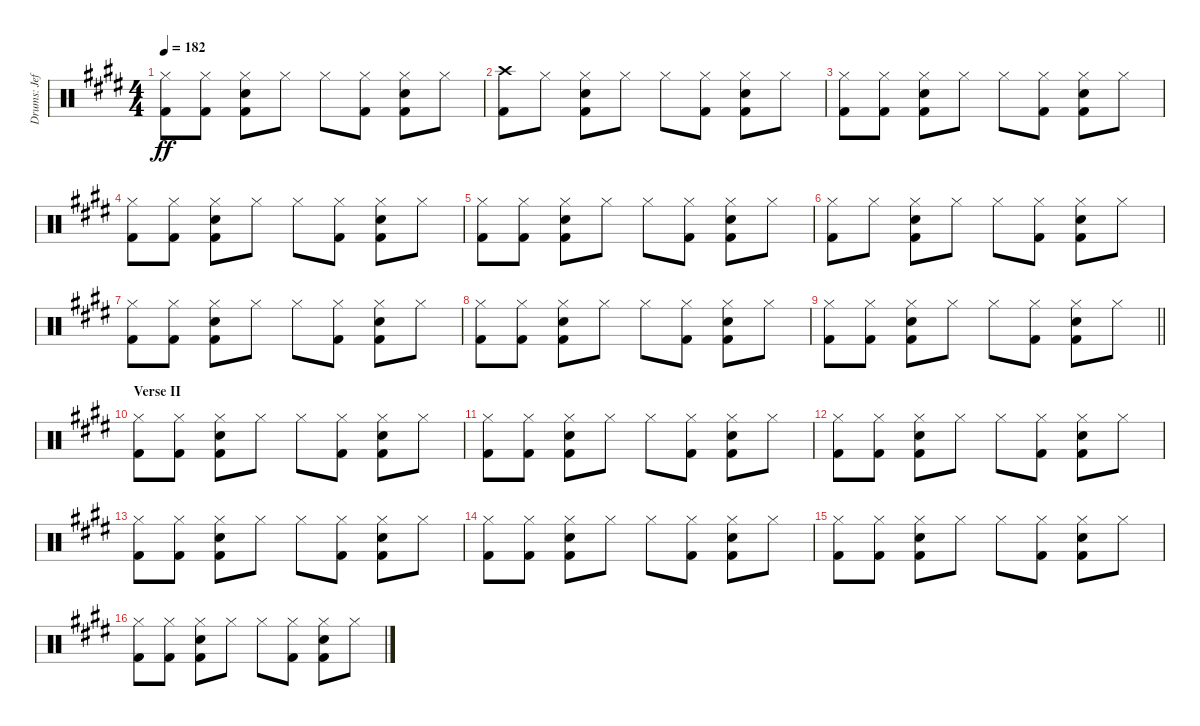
\track ("Drums: Jeff" "Drums: Jef") {instrument percussion}
\staff {score}
\articulation defaults
\ts (4 4)
\tempo 182
\clef neutral
\ks e
("Hi-Hat (closed)" "Kick (hit) 2").8{dy ff} ("Hi-Hat (closed)" "Kick (hit) 2").8 ("Hi-Hat (closed)" "Electric Snare (hit)" "Kick (hit) 2").8 "Hi-Hat (closed)".8 "Hi-Hat (closed)".8 ("Hi-Hat (closed)" "Kick (hit) 2").8 ("Hi-Hat (closed)" "Electric Snare (hit)" "Kick (hit) 2").8 "Hi-Hat (closed)".8 |
("Crash high (hit)" "Kick (hit) 2").8 "Hi-Hat (closed)".8 ("Hi-Hat (closed)" "Electric Snare (hit)" "Kick (hit) 2").8 "Hi-Hat (closed)".8 "Hi-Hat (closed)".8 ("Hi-Hat (closed)" "Kick (hit) 2").8 ("Hi-Hat (closed)" "Electric Snare (hit)" "Kick (hit) 2").8 "Hi-Hat (closed)".8 |
("Hi-Hat (closed)" "Kick (hit) 2").8 ("Hi-Hat (closed)" "Kick (hit) 2").8 ("Hi-Hat (closed)" "Electric Snare (hit)" "Kick (hit) 2").8 "Hi-Hat (closed)".8 "Hi-Hat (closed)".8 ("Hi-Hat (closed)" "Kick (hit) 2").8 ("Hi-Hat (closed)" "Electric Snare (hit)" "Kick (hit) 2").8 "Hi-Hat (closed)".8 |
("Hi-Hat (closed)" "Kick (hit) 2").8 ("Hi-Hat (closed)" "Kick (hit) 2").8 ("Hi-Hat (closed)" "Electric Snare (hit)" "Kick (hit) 2").8 "Hi-Hat (closed)".8 "Hi-Hat (closed)".8 ("Hi-Hat (closed)" "Kick (hit) 2").8 ("Hi-Hat (closed)" "Electric Snare (hit)" "Kick (hit) 2").8 "Hi-Hat (closed)".8 |
("Hi-Hat (closed)" "Kick (hit) 2").8 ("Hi-Hat (closed)" "Kick (hit) 2").8 ("Hi-Hat (closed)" "Electric Snare (hit)" "Kick (hit) 2").8 "Hi-Hat (closed)".8 "Hi-Hat (closed)".8 ("Hi-Hat (closed)" "Kick (hit) 2").8 ("Hi-Hat (closed)" "Electric Snare (hit)" "Kick (hit) 2").8 "Hi-Hat (closed)".8 |
("Hi-Hat (closed)" "Kick (hit) 2").8 "Hi-Hat (closed)".8 ("Hi-Hat (closed)" "Electric Snare (hit)" "Kick (hit) 2").8 "Hi-Hat (closed)".8 "Hi-Hat (closed)".8 ("Hi-Hat (closed)" "Kick (hit) 2").8 ("Hi-Hat (closed)" "Electric Snare (hit)" "Kick (hit) 2").8 "Hi-Hat (closed)".8 |
("Hi-Hat (closed)" "Kick (hit) 2").8 ("Hi-Hat (closed)" "Kick (hit) 2").8 ("Hi-Hat (closed)" "Electric Snare (hit)" "Kick (hit) 2").8 "Hi-Hat (closed)".8 "Hi-Hat (closed)".8 ("Hi-Hat (closed)" "Kick (hit) 2").8 ("Hi-Hat (closed)" "Electric Snare (hit)" "Kick (hit) 2").8 "Hi-Hat (closed)".8 |
("Hi-Hat (closed)" "Kick (hit) 2").8 ("Hi-Hat (closed)" "Kick (hit) 2").8 ("Hi-Hat (closed)" "Electric Snare (hit)" "Kick (hit) 2").8 "Hi-Hat (closed)".8 "Hi-Hat (closed)".8 ("Hi-Hat (closed)" "Kick (hit) 2").8 ("Hi-Hat (closed)" "Electric Snare (hit)" "Kick (hit) 2").8 "Hi-Hat (closed)".8 |
\barLineRight lightlight
("Hi-Hat (closed)" "Kick (hit) 2").8 ("Hi-Hat (closed)" "Kick (hit) 2").8 ("Hi-Hat (closed)" "Electric Snare (hit)" "Kick (hit) 2").8 "Hi-Hat (closed)".8 "Hi-Hat (closed)".8 ("Hi-Hat (closed)" "Kick (hit) 2").8 ("Hi-Hat (closed)" "Electric Snare (hit)" "Kick (hit) 2").8 "Hi-Hat (closed)".8 |
\section ("" "Verse II")
("Hi-Hat (closed)" "Kick (hit) 2").8 ("Hi-Hat (closed)" "Kick (hit) 2").8 ("Hi-Hat (closed)" "Electric Snare (hit)" "Kick (hit) 2").8 "Hi-Hat (closed)".8 "Hi-Hat (closed)".8 ("Hi-Hat (closed)" "Kick (hit) 2").8 ("Hi-Hat (closed)" "Electric Snare (hit)" "Kick (hit) 2").8 "Hi-Hat (closed)".8 |
("Hi-Hat (closed)" "Kick (hit) 2").8 ("Hi-Hat (closed)" "Kick (hit) 2").8 ("Hi-Hat (closed)" "Electric Snare (hit)" "Kick (hit) 2").8 "Hi-Hat (closed)".8 "Hi-Hat (closed)".8 ("Hi-Hat (closed)" "Kick (hit) 2").8 ("Hi-Hat (closed)" "Electric Snare (hit)" "Kick (hit) 2").8 "Hi-Hat (closed)".8 |
("Hi-Hat (closed)" "Kick (hit) 2").8 ("Hi-Hat (closed)" "Kick (hit) 2").8 ("Hi-Hat (closed)" "Electric Snare (hit)" "Kick (hit) 2").8 "Hi-Hat (closed)".8 "Hi-Hat (closed)".8 ("Hi-Hat (closed)" "Kick (hit) 2").8 ("Hi-Hat (closed)" "Electric Snare (hit)" "Kick (hit) 2").8 "Hi-Hat (closed)".8 |
("Hi-Hat (closed)" "Kick (hit) 2").8 ("Hi-Hat (closed)" "Kick (hit) 2").8 ("Hi-Hat (closed)" "Electric Snare (hit)" "Kick (hit) 2").8 "Hi-Hat (closed)".8 "Hi-Hat (closed)".8 ("Hi-Hat (closed)" "Kick (hit) 2").8 ("Hi-Hat (closed)" "Electric Snare (hit)" "Kick (hit) 2").8 "Hi-Hat (closed)".8 |
("Hi-Hat (closed)" "Kick (hit) 2").8 ("Hi-Hat (closed)" "Kick (hit) 2").8 ("Hi-Hat (closed)" "Electric Snare (hit)" "Kick (hit) 2").8 "Hi-Hat (closed)".8 "Hi-Hat (closed)".8 ("Hi-Hat (closed)" "Kick (hit) 2").8 ("Hi-Hat (closed)" "Electric Snare (hit)" "Kick (hit) 2").8 "Hi-Hat (closed)".8 |
("Hi-Hat (closed)" "Kick (hit) 2").8 ("Hi-Hat (closed)" "Kick (hit) 2").8 ("Hi-Hat (closed)" "Electric Snare (hit)" "Kick (hit) 2").8 "Hi-Hat (closed)".8 "Hi-Hat (closed)".8 ("Hi-Hat (closed)" "Kick (hit) 2").8 ("Hi-Hat (closed)" "Electric Snare (hit)" "Kick (hit) 2").8 "Hi-Hat (closed)".8 |
("Hi-Hat (closed)" "Kick (hit) 2").8 ("Hi-Hat (closed)" "Kick (hit) 2").8 ("Hi-Hat (closed)" "Electric Snare (hit)" "Kick (hit) 2").8 "Hi-Hat (closed)".8 "Hi-Hat (closed)".8 ("Hi-Hat (closed)" "Kick (hit) 2").8 ("Hi-Hat (closed)" "Electric Snare (hit)" "Kick (hit) 2").8 "Hi-Hat (closed)".8
